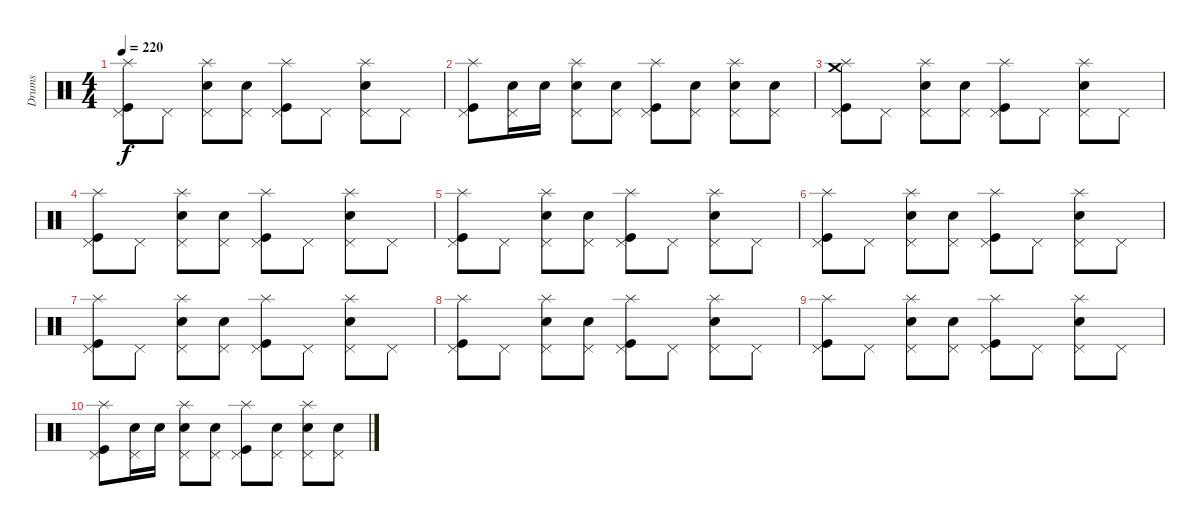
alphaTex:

\track ("Drums" "Drums") {instrument percussion}
\staff {score}
\articulation defaults
\ts (4 4)
\tempo 220
\clef neutral
\ks c
("Splash (hit)" "Kick (hit)" "Pedal Hi-Hat (hit)").8{dy f} "Pedal Hi-Hat (hit)".8 ("Electric Snare (hit)" "Pedal Hi-Hat (hit)" "Splash (hit)").8 ("Pedal Hi-Hat (hit)" "Electric Snare (hit)").8 ("Pedal Hi-Hat (hit)" "Kick (hit)" "Splash (hit)").8 "Pedal Hi-Hat (hit)".8 ("Pedal Hi-Hat (hit)" "Electric Snare (hit)" "Splash (hit)").8 "Pedal Hi-Hat (hit)".8 |
("Kick (hit)" "Pedal Hi-Hat (hit)" "Splash (hit)").8 ("Pedal Hi-Hat (hit)" "Electric Snare (hit)").16 "Electric Snare (hit)".16 ("Splash (hit)" "Electric Snare (hit)" "Pedal Hi-Hat (hit)").8 ("Electric Snare (hit)" "Pedal Hi-Hat (hit)").8 ("Pedal Hi-Hat (hit)" "Kick (hit)" "Splash (hit)").8 ("Pedal Hi-Hat (hit)" "Electric Snare (hit)").8 ("Pedal Hi-Hat (hit)" "Electric Snare (hit)" "Splash (hit)").8 ("Electric Snare (hit)" "Pedal Hi-Hat (hit)").8 |
("Splash (hit)" "Crash medium (hit)" "Kick (hit)" "Pedal Hi-Hat (hit)").8 "Pedal Hi-Hat (hit)".8 ("Splash (hit)" "Pedal Hi-Hat (hit)" "Electric Snare (hit)").8 ("Pedal Hi-Hat (hit)" "Electric Snare (hit)").8 ("Pedal Hi-Hat (hit)" "Kick (hit)" "Splash (hit)").8 "Pedal Hi-Hat (hit)".8 ("Splash (hit)" "Electric Snare (hit)" "Pedal Hi-Hat (hit)").8 "Pedal Hi-Hat (hit)".8 |
("Kick (hit)" "Pedal Hi-Hat (hit)" "Splash (hit)").8 "Pedal Hi-Hat (hit)".8 ("Splash (hit)" "Pedal Hi-Hat (hit)" "Electric Snare (hit)").8 ("Pedal Hi-Hat (hit)" "Electric Snare (hit)").8 ("Splash (hit)" "Kick (hit)" "Pedal Hi-Hat (hit)").8 "Pedal Hi-Hat (hit)".8 ("Splash (hit)" "Electric Snare (hit)" "Pedal Hi-Hat (hit)").8 "Pedal Hi-Hat (hit)".8 |
("Pedal Hi-Hat (hit)" "Kick (hit)" "Splash (hit)").8 "Pedal Hi-Hat (hit)".8 ("Electric Snare (hit)" "Pedal Hi-Hat (hit)" "Splash (hit)").8 ("Electric Snare (hit)" "Pedal Hi-Hat (hit)").8 ("Splash (hit)" "Kick (hit)" "Pedal Hi-Hat (hit)").8 "Pedal Hi-Hat (hit)".8 ("Pedal Hi-Hat (hit)" "Electric Snare (hit)" "Splash (hit)").8 "Pedal Hi-Hat (hit)".8 |
("Splash (hit)" "Pedal Hi-Hat (hit)" "Kick (hit)").8 "Pedal Hi-Hat (hit)".8 ("Splash (hit)" "Pedal Hi-Hat (hit)" "Electric Snare (hit)").8 ("Pedal Hi-Hat (hit)" "Electric Snare (hit)").8 ("Pedal Hi-Hat (hit)" "Kick (hit)" "Splash (hit)").8 "Pedal Hi-Hat (hit)".8 ("Pedal Hi-Hat (hit)" "Electric Snare (hit)" "Splash (hit)").8 "Pedal Hi-Hat (hit)".8 |
("Splash (hit)" "Kick (hit)" "Pedal Hi-Hat (hit)").8 "Pedal Hi-Hat (hit)".8 ("Splash (hit)" "Pedal Hi-Hat (hit)" "Electric Snare (hit)").8 ("Electric Snare (hit)" "Pedal Hi-Hat (hit)").8 ("Splash (hit)" "Kick (hit)" "Pedal Hi-Hat (hit)").8 "Pedal Hi-Hat (hit)".8 ("Splash (hit)" "Electric Snare (hit)" "Pedal Hi-Hat (hit)").8 "Pedal Hi-Hat (hit)".8 |
("Splash (hit)" "Pedal Hi-Hat (hit)" "Kick (hit)").8 "Pedal Hi-Hat (hit)".8 ("Splash (hit)" "Pedal Hi-Hat (hit)" "Electric Snare (hit)").8 ("Electric Snare (hit)" "Pedal Hi-Hat (hit)").8 ("Splash (hit)" "Kick (hit)" "Pedal Hi-Hat (hit)").8 "Pedal Hi-Hat (hit)".8 ("Splash (hit)" "Electric Snare (hit)" "Pedal Hi-Hat (hit)").8 "Pedal Hi-Hat (hit)".8 |
("Splash (hit)" "Kick (hit)" "Pedal Hi-Hat (hit)").8 "Pedal Hi-Hat (hit)".8 ("Splash (hit)" "Electric Snare (hit)" "Pedal Hi-Hat (hit)").8 ("Electric Snare (hit)" "Pedal Hi-Hat (hit)").8 ("Splash (hit)" "Pedal Hi-Hat (hit)" "Kick (hit)").8 "Pedal Hi-Hat (hit)".8 ("Splash (hit)" "Electric Snare (hit)" "Pedal Hi-Hat (hit)").8 "Pedal Hi-Hat (hit)".8 |
("Splash (hit)" "Kick (hit)" "Pedal Hi-Hat (hit)").8 ("Pedal Hi-Hat (hit)" "Electric Snare (hit)").16 "Electric Snare (hit)".16 ("Splash (hit)" "Electric Snare (hit)" "Pedal Hi-Hat (hit)").8 ("Pedal Hi-Hat (hit)" "Electric Snare (hit)").8 ("Splash (hit)" "Pedal Hi-Hat (hit)" "Kick (hit)").8 ("Electric Snare (hit)" "Pedal Hi-Hat (hit)").8 ("Splash (hit)" "Pedal Hi-Hat (hit)" "Electric Snare (hit)").8 ("Electric Snare (hit)" "Pedal Hi-Hat (hit)").8
